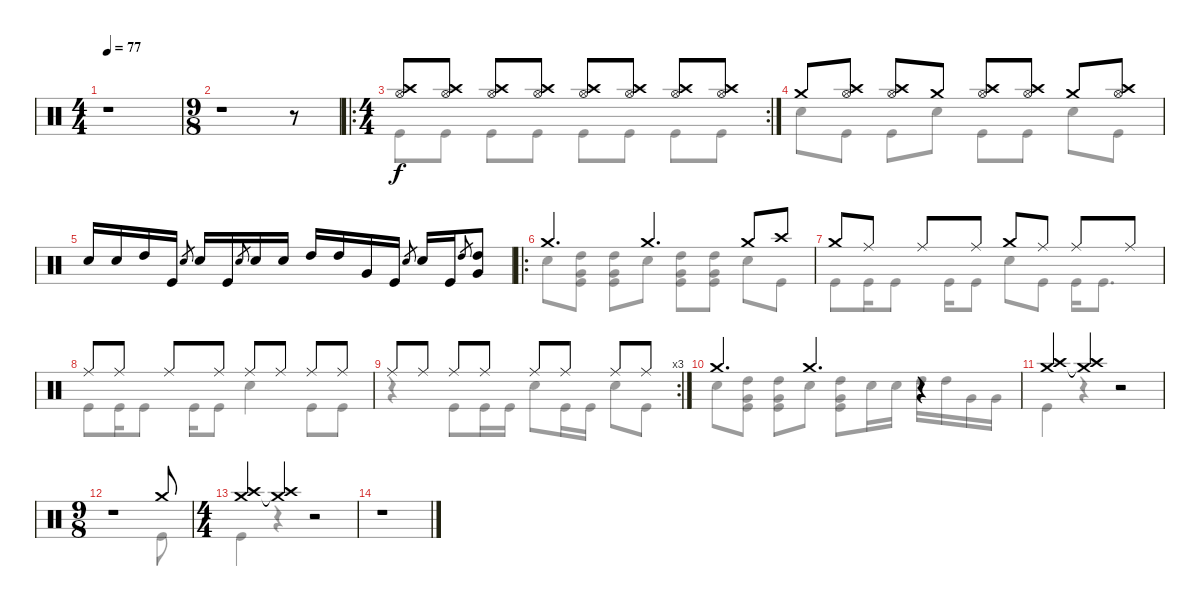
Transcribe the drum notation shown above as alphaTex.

\track "" {instrument percussion}
\staff {score}
\articulation defaults
\voice
\ts (4 4)
\tempo 77
\clef neutral
\ks c
r.1{dy f} |
\ts (9 8)
r.1 r.8 |
\ro
\rc 2
\ts (4 4)
("Crash high (hit)" "Hi-Hat (open)").8 ("Crash high (hit)" "Hi-Hat (open)").8 ("Crash high (hit)" "Hi-Hat (open)").8 ("Crash high (hit)" "Hi-Hat (open)").8 ("Crash high (hit)" "Hi-Hat (open)").8 ("Crash high (hit)" "Hi-Hat (open)").8 ("Crash high (hit)" "Hi-Hat (open)").8 ("Crash high (hit)" "Hi-Hat (open)").8 |
"Crash medium (hit)".8 ("Crash high (hit)" "Hi-Hat (open)").8 ("Crash high (hit)" "Hi-Hat (open)").8 "Crash medium (hit)".8 ("Crash high (hit)" "Hi-Hat (open)").8 ("Crash high (hit)" "Hi-Hat (open)").8 "Crash medium (hit)".8 ("Crash high (hit)" "Hi-Hat (open)").8 |
"Snare (hit) 2".16 "Snare (hit) 2".16 "High Tom (hit)".16 "Kick (hit)".16 "Snare (hit) 2".8{gr} "Snare (hit) 2".16 "Kick (hit)".16 "Snare (hit) 2".8{gr} "Snare (hit) 2".16 "Snare (hit) 2".16 "High Tom (hit)".16 "High Tom (hit)".16 "Very Low Tom (hit)".16 "Kick (hit)".16 "Snare (hit) 2".8{gr} "Snare (hit) 2".16 "Kick (hit)".16 "High Tom (hit)".8{gr} ("High Tom (hit)" "Very Low Tom (hit)").8 |
\ro "Crash medium (hit)".4{d} "Crash medium (hit)".4{d} "Crash medium (hit)".8 "Crash high (hit)".8
|
"Crash medium (hit)".8 "Ride (middle)".8 "Ride (middle)".8 "Ride (middle)".8 "Crash medium (hit)".8 "Ride (middle)".8 "Ride (middle)".8 "Ride (middle)".8 |
"Ride (middle)".8 "Ride (middle)".8 "Ride (middle)".8 "Ride (middle)".8 "Ride (middle)".8 "Ride (middle)".8 "Ride (middle)".8 "Ride (middle)".8 |
\rc 3 "Ride (middle)".8 "Ride (middle)".8 "Ride (middle)".8 "Ride (middle)".8 "Ride (middle)".8 "Ride (middle)".8 "Ride (middle)".8 "Ride (middle)".8
|
"Crash medium (hit)".4{d} "Crash medium (hit)".4{d} r.4 |
("Crash high (hit)" "Crash medium (hit)").4 ("Crash high (hit)"{t} "Crash medium (hit)").4 r.2 |
\ts (9 8)
r.1 "Crash medium (hit)".8 |
\ts (4 4)
("Crash high (hit)" "Crash medium (hit)").4 ("Crash high (hit)"{t} "Crash medium (hit)").4 r.2 |
r.1
\voice
\clef neutral
\ottava regular
\simile none
\ks c
r.1{dy f} |
r.1 r.8 |
"Kick (hit)".8 "Kick (hit)".8 "Kick (hit)".8 "Kick (hit)".8 "Kick (hit)".8 "Kick (hit)".8 "Kick (hit)".8 "Kick (hit)".8 |
"Snare (hit) 2".8 "Kick (hit)".8 "Kick (hit)".8 "Snare (hit) 2".8 "Kick (hit)".8 "Kick (hit)".8 "Snare (hit) 2".8 "Kick (hit)".8 |
|
"Snare (hit) 2".8 ("High Tom (hit)" "Very Low Tom (hit)" "Kick (hit)").8 ("High Tom (hit)" "Very Low Tom (hit)" "Kick (hit)").8 "Snare (hit) 2".8 ("High Tom (hit)" "Very Low Tom (hit)" "Kick (hit)").8 ("High Tom (hit)" "Very Low Tom (hit)" "Kick (hit)").8 "Snare (hit) 2".8 "Kick (hit)".8 |
"Kick (hit)".8 "Kick (hit)".16 "Kick (hit)".8 "Kick (hit)".16 "Kick (hit)".8 "Snare (hit) 2".8 "Kick (hit)".8 "Kick (hit)".16 "Kick (hit)".8{d} |
"Kick (hit)".8 "Kick (hit)".16 "Kick (hit)".8 "Kick (hit)".16 "Kick (hit)".8 "Snare (hit) 2".4 "Kick (hit)".8 "Kick (hit)".8 |
r.4 "Kick (hit)".8 "Kick (hit)".16 "Kick (hit)".16 "Snare (hit) 2".8 "Kick (hit)".16 "Kick (hit)".16 "Snare (hit) 2".8 "Kick (hit)".8 |
"Snare (hit) 2".8 ("High Tom (hit)" "Very Low Tom (hit)" "Kick (hit)").8 ("High Tom (hit)" "Very Low Tom (hit)" "Kick (hit)").8 "Snare (hit) 2".8 ("High Tom (hit)" "Very Low Tom (hit)" "Kick (hit)").8 "Snare (hit) 2".16 "Snare (hit) 2".16 "High Tom (hit)".16 "High Tom (hit)".16 "Very Low Tom (hit)".16 "Very Low Tom (hit)".16 |
"Kick (hit)".4 r.4 r.2 |
r.1 "Kick (hit)".8 |
"Kick (hit)".4 r.4 r.2 |
r.1
